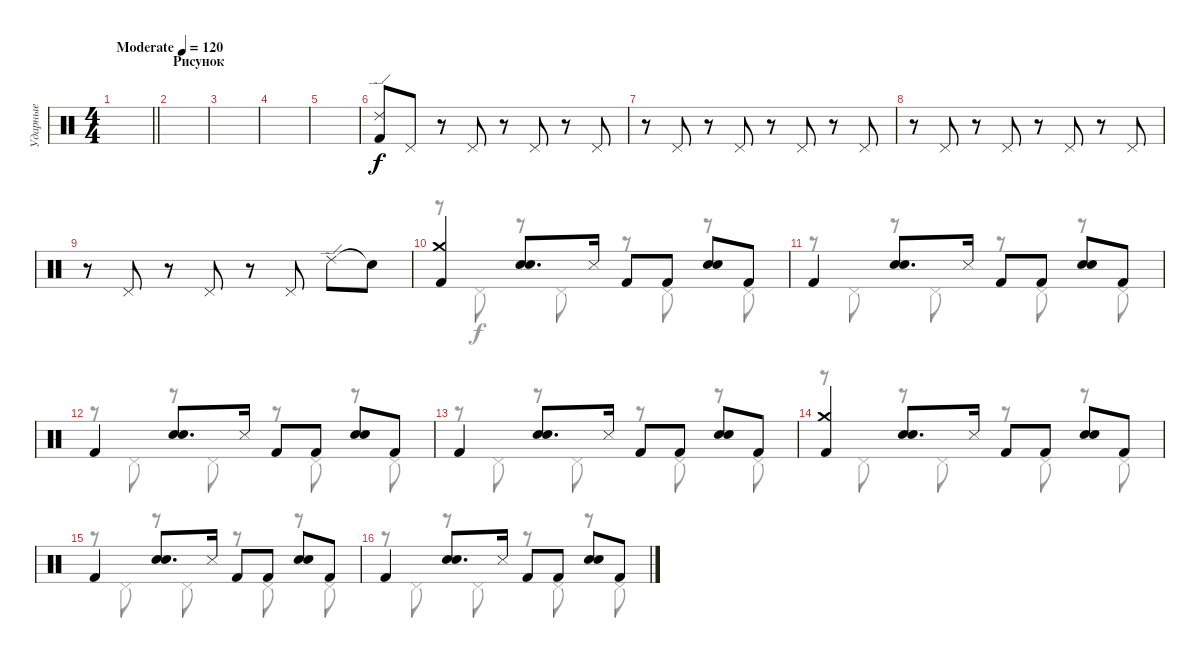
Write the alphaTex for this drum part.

\track ("Ударные" "Ударные") {instrument percussion}
\staff {score}
\articulation defaults
\voice
\ts (4 4)
\tempo (120 "Moderate")
\clef neutral
\barLineRight lightlight
\ks c
|
\section ("" "Рисунок")
|
|
|
|
("Ride (edge) 2" "Kick (hit) 2").8 "Pedal Hi-Hat (hit)".8 r.8 "Pedal Hi-Hat (hit)".8 r.8 "Pedal Hi-Hat (hit)".8 r.8 "Pedal Hi-Hat (hit)".8 |
r.8 "Pedal Hi-Hat (hit)".8 r.8 "Pedal Hi-Hat (hit)".8 r.8 "Pedal Hi-Hat (hit)".8 r.8 "Pedal Hi-Hat (hit)".8 |
r.8 "Pedal Hi-Hat (hit)".8 r.8 "Pedal Hi-Hat (hit)".8 r.8 "Pedal Hi-Hat (hit)".8 r.8 "Pedal Hi-Hat (hit)".8 |
r.8 "Pedal Hi-Hat (hit)".8 r.8 "Pedal Hi-Hat (hit)".8 r.8 "Pedal Hi-Hat (hit)".8 "Ride (edge) 2".8 "Snare (hit)"{t}.8 |
("Kick (hit) 2" "Crash medium (hit)").4 ("Hand Clap (hit)" "Snare (hit) 2").8{d} "Metronome (hit)".16 "Kick (hit) 2".8 "Kick (hit) 2".8 ("Hand Clap (hit)" "Snare (hit) 2").8 "Kick (hit) 2".8 |
"Kick (hit) 2".4 ("Hand Clap (hit)" "Snare (hit) 2").8{d} "Metronome (hit)".16 "Kick (hit) 2".8 "Kick (hit) 2".8 ("Hand Clap (hit)" "Snare (hit) 2").8 "Kick (hit) 2".8 |
"Kick (hit) 2".4 ("Hand Clap (hit)" "Snare (hit) 2").8{d} "Metronome (hit)".16 "Kick (hit) 2".8 "Kick (hit) 2".8 ("Hand Clap (hit)" "Snare (hit) 2").8 "Kick (hit) 2".8 |
"Kick (hit) 2".4 ("Hand Clap (hit)" "Snare (hit) 2").8{d} "Metronome (hit)".16 "Kick (hit) 2".8 "Kick (hit) 2".8 ("Hand Clap (hit)" "Snare (hit) 2").8 "Kick (hit) 2".8 |
("Kick (hit) 2" "Crash medium (hit)").4 ("Hand Clap (hit)" "Snare (hit) 2").8{d} "Metronome (hit)".16 "Kick (hit) 2".8 "Kick (hit) 2".8 ("Hand Clap (hit)" "Snare (hit) 2").8 "Kick (hit) 2".8 |
"Kick (hit) 2".4 ("Hand Clap (hit)" "Snare (hit) 2").8{d} "Metronome (hit)".16 "Kick (hit) 2".8 "Kick (hit) 2".8 ("Hand Clap (hit)" "Snare (hit) 2").8 "Kick (hit) 2".8 |
"Kick (hit) 2".4 ("Hand Clap (hit)" "Snare (hit) 2").8{d} "Metronome (hit)".16 "Kick (hit) 2".8 "Kick (hit) 2".8 ("Hand Clap (hit)" "Snare (hit) 2").8 "Kick (hit) 2".8
\voice
\clef neutral
\ottava regular
\simile none
\barLineRight lightlight
\ks c
|
|
|
|
|
|
|
|
|
r.8 "Pedal Hi-Hat (hit)".8 r.8 "Pedal Hi-Hat (hit)".8 r.8 "Pedal Hi-Hat (hit)".8 r.8 "Pedal Hi-Hat (hit)".8 |
r.8 "Pedal Hi-Hat (hit)".8 r.8 "Pedal Hi-Hat (hit)".8 r.8 "Pedal Hi-Hat (hit)".8 r.8 "Pedal Hi-Hat (hit)".8 |
r.8 "Pedal Hi-Hat (hit)".8 r.8 "Pedal Hi-Hat (hit)".8 r.8 "Pedal Hi-Hat (hit)".8 r.8 "Pedal Hi-Hat (hit)".8 |
r.8 "Pedal Hi-Hat (hit)".8 r.8 "Pedal Hi-Hat (hit)".8 r.8 "Pedal Hi-Hat (hit)".8 r.8 "Pedal Hi-Hat (hit)".8 |
r.8 "Pedal Hi-Hat (hit)".8 r.8 "Pedal Hi-Hat (hit)".8 r.8 "Pedal Hi-Hat (hit)".8 r.8 "Pedal Hi-Hat (hit)".8 |
r.8 "Pedal Hi-Hat (hit)".8 r.8 "Pedal Hi-Hat (hit)".8 r.8 "Pedal Hi-Hat (hit)".8 r.8 "Pedal Hi-Hat (hit)".8 |
r.8 "Pedal Hi-Hat (hit)".8 r.8 "Pedal Hi-Hat (hit)".8 r.8 "Pedal Hi-Hat (hit)".8 r.8 "Pedal Hi-Hat (hit)".8
